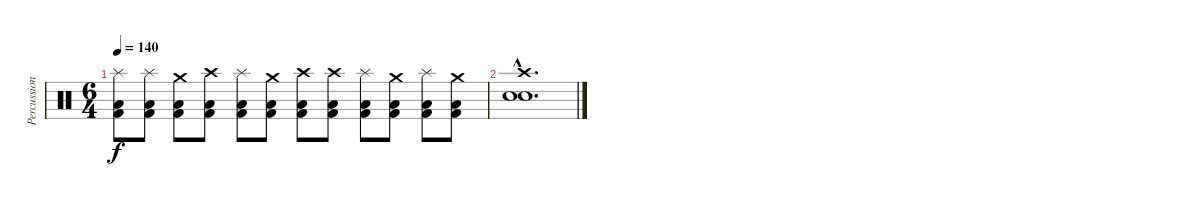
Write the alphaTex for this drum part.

\track ("Percussions" "Percussion") {instrument percussion}
\staff {score}
\articulation defaults
\ts (6 4)
\tempo 140
\clef neutral
\ks c
("Splash (hit)" "Kick (hit) 2" "Low Floor Tom (hit)").8{dy f} ("Splash (hit)" "Kick (hit) 2" "Low Floor Tom (hit)").8 ("Crash medium (hit)" "Kick (hit) 2" "Low Floor Tom (hit)").8 ("Crash high (hit)" "Kick (hit) 2" "Low Floor Tom (hit)").8 ("Splash (hit)" "Kick (hit) 2" "Low Floor Tom (hit)").8 ("Crash medium (hit)" "Kick (hit) 2" "Low Floor Tom (hit)").8 ("Crash high (hit)" "Kick (hit) 2" "Low Floor Tom (hit)").8 ("Crash high (hit)" "Kick (hit) 2" "Low Floor Tom (hit)").8 ("Splash (hit)" "Kick (hit) 2" "Low Floor Tom (hit)").8 ("Crash medium (hit)" "Kick (hit) 2" "Low Floor Tom (hit)").8 ("Splash (hit)" "Kick (hit) 2" "Low Floor Tom (hit)").8 ("Crash medium (hit)" "Kick (hit) 2" "Low Floor Tom (hit)").8 |
("Crash high (hit)"{hac} "Snare (hit) 2"{hac} "Electric Snare (hit)"{hac}).1{d}
